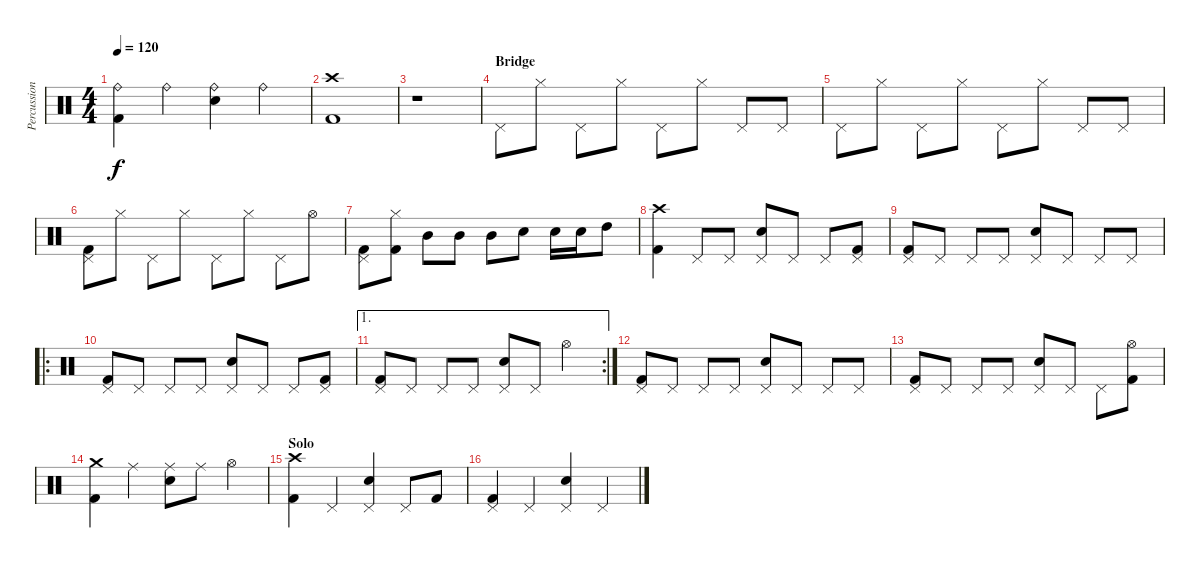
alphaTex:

\track ("Percussion" "Percussion") {instrument percussion}
\staff {score}
\articulation defaults
\ts (4 4)
\tempo 120
\clef neutral
\ks c
("Ride (bell)" "Kick (hit) 2").4{dy f} "Ride (bell)".4 ("Ride (bell)" "Snare (hit) 2").4 "Ride (bell)".4 |
("Crash high (hit)" "Kick (hit) 2").1 |
r.1 |
\section ("" "Bridge")
"Pedal Hi-Hat (hit)".8 "Hi-Hat (closed)".8 "Pedal Hi-Hat (hit)".8 "Hi-Hat (closed)".8 "Pedal Hi-Hat (hit)".8 "Hi-Hat (closed)".8 "Pedal Hi-Hat (hit)".8 "Pedal Hi-Hat (hit)".8 |
"Pedal Hi-Hat (hit)".8 "Hi-Hat (closed)".8 "Pedal Hi-Hat (hit)".8 "Hi-Hat (closed)".8 "Pedal Hi-Hat (hit)".8 "Hi-Hat (closed)".8 "Pedal Hi-Hat (hit)".8 "Pedal Hi-Hat (hit)".8 |
("Pedal Hi-Hat (hit)" "Kick (hit) 2").8 "Hi-Hat (closed)".8 "Pedal Hi-Hat (hit)".8 "Hi-Hat (closed)".8 "Pedal Hi-Hat (hit)".8 "Hi-Hat (closed)".8 "Pedal Hi-Hat (hit)".8 "Hi-Hat (open)".8 |
("Pedal Hi-Hat (hit)" "Kick (hit) 2").8 ("Hi-Hat (closed)" "Kick (hit) 2").8 "Mid Tom (hit)".8 "Mid Tom (hit)".8 "Mid Tom (hit)".8 "Snare (hit) 2".8 "Snare (hit) 2".16 "Snare (hit) 2".16 "High Tom (hit)".8 |
("Crash high (hit)" "Kick (hit) 2").4 "Pedal Hi-Hat (hit)".8 "Pedal Hi-Hat (hit)".8 ("Pedal Hi-Hat (hit)" "Snare (hit) 2").8 "Pedal Hi-Hat (hit)".8 "Pedal Hi-Hat (hit)".8 ("Pedal Hi-Hat (hit)" "Kick (hit) 2").8 |
("Pedal Hi-Hat (hit)" "Kick (hit) 2").8 "Pedal Hi-Hat (hit)".8 "Pedal Hi-Hat (hit)".8 "Pedal Hi-Hat (hit)".8 ("Pedal Hi-Hat (hit)" "Snare (hit) 2").8 "Pedal Hi-Hat (hit)".8 "Pedal Hi-Hat (hit)".8 "Pedal Hi-Hat (hit)".8 |
\ro
("Pedal Hi-Hat (hit)" "Kick (hit) 2").8 "Pedal Hi-Hat (hit)".8 "Pedal Hi-Hat (hit)".8 "Pedal Hi-Hat (hit)".8 ("Pedal Hi-Hat (hit)" "Snare (hit) 2").8 "Pedal Hi-Hat (hit)".8 "Pedal Hi-Hat (hit)".8 ("Pedal Hi-Hat (hit)" "Kick (hit) 2").8 |
\ae 1
\rc 2
("Pedal Hi-Hat (hit)" "Kick (hit) 2").8 "Pedal Hi-Hat (hit)".8 "Pedal Hi-Hat (hit)".8 "Pedal Hi-Hat (hit)".8 ("Pedal Hi-Hat (hit)" "Snare (hit) 2").8 "Pedal Hi-Hat (hit)".8 "Hi-Hat (open)".4 |
("Pedal Hi-Hat (hit)" "Kick (hit) 2").8 "Pedal Hi-Hat (hit)".8 "Pedal Hi-Hat (hit)".8 "Pedal Hi-Hat (hit)".8 ("Pedal Hi-Hat (hit)" "Snare (hit) 2").8 "Pedal Hi-Hat (hit)".8 "Pedal Hi-Hat (hit)".8 "Pedal Hi-Hat (hit)".8 |
("Pedal Hi-Hat (hit)" "Kick (hit) 2").8 "Pedal Hi-Hat (hit)".8 "Pedal Hi-Hat (hit)".8 "Pedal Hi-Hat (hit)".8 ("Pedal Hi-Hat (hit)" "Snare (hit) 2").8 "Pedal Hi-Hat (hit)".8 "Pedal Hi-Hat (hit)".8 ("Hi-Hat (open)" "Kick (hit) 2").8 |
("Crash medium (hit)" "Kick (hit) 2").4 "Ride (middle)".4 ("Ride (middle)" "Snare (hit) 2").8 "Ride (middle)".8 "Hi-Hat (open)".4 |
\section ("" "Solo")
("Crash high (hit)" "Kick (hit) 2").4 "Pedal Hi-Hat (hit)".4 ("Pedal Hi-Hat (hit)" "Snare (hit) 2").4 "Pedal Hi-Hat (hit)".8 "Kick (hit) 2".8 |
("Pedal Hi-Hat (hit)" "Kick (hit) 2").4 "Pedal Hi-Hat (hit)".4 ("Pedal Hi-Hat (hit)" "Snare (hit) 2").4 "Pedal Hi-Hat (hit)".4
